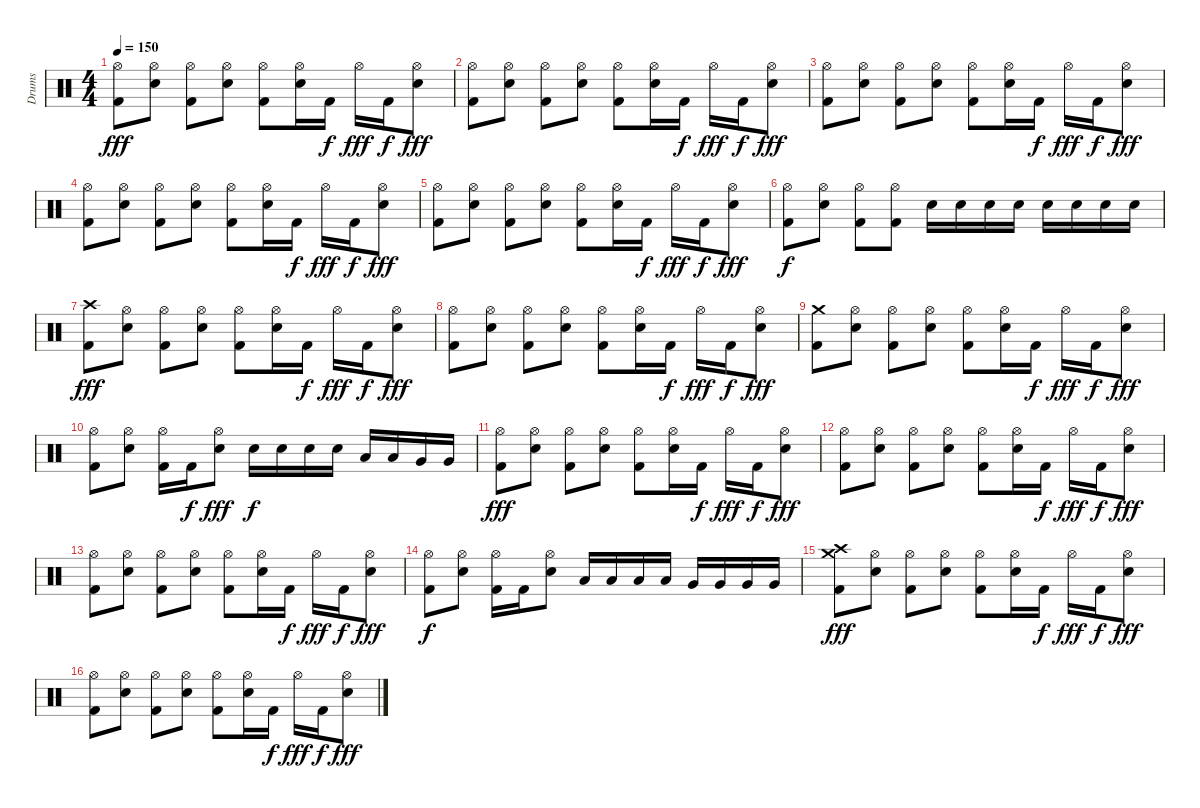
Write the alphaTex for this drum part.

\track ("Drums" "Drums") {instrument percussion}
\staff {score}
\articulation defaults
\ts (4 4)
\tempo 150
\clef neutral
\ks c
("Hi-Hat (open)" "Kick (hit) 2").8{dy fff} ("Hi-Hat (open)" "Electric Snare (hit)").8 ("Hi-Hat (open)" "Kick (hit) 2").8 ("Hi-Hat (open)" "Electric Snare (hit)").8 ("Hi-Hat (open)" "Kick (hit) 2").8 ("Hi-Hat (open)" "Electric Snare (hit)").16 "Kick (hit) 2".16{dy f} "Hi-Hat (open)".16{dy fff} "Kick (hit) 2".16{dy f} ("Hi-Hat (open)" "Electric Snare (hit)").8{dy fff} |
("Hi-Hat (open)" "Kick (hit) 2").8 ("Hi-Hat (open)" "Electric Snare (hit)").8 ("Hi-Hat (open)" "Kick (hit) 2").8 ("Hi-Hat (open)" "Electric Snare (hit)").8 ("Hi-Hat (open)" "Kick (hit) 2").8 ("Hi-Hat (open)" "Electric Snare (hit)").16 "Kick (hit) 2".16{dy f} "Hi-Hat (open)".16{dy fff} "Kick (hit) 2".16{dy f} ("Hi-Hat (open)" "Electric Snare (hit)").8{dy fff} |
("Hi-Hat (open)" "Kick (hit) 2").8 ("Hi-Hat (open)" "Electric Snare (hit)").8 ("Hi-Hat (open)" "Kick (hit) 2").8 ("Hi-Hat (open)" "Electric Snare (hit)").8 ("Hi-Hat (open)" "Kick (hit) 2").8 ("Hi-Hat (open)" "Electric Snare (hit)").16 "Kick (hit) 2".16{dy f} "Hi-Hat (open)".16{dy fff} "Kick (hit) 2".16{dy f} ("Hi-Hat (open)" "Electric Snare (hit)").8{dy fff} |
("Hi-Hat (open)" "Kick (hit) 2").8 ("Hi-Hat (open)" "Electric Snare (hit)").8 ("Hi-Hat (open)" "Kick (hit) 2").8 ("Hi-Hat (open)" "Electric Snare (hit)").8 ("Hi-Hat (open)" "Kick (hit) 2").8 ("Hi-Hat (open)" "Electric Snare (hit)").16 "Kick (hit) 2".16{dy f} "Hi-Hat (open)".16{dy fff} "Kick (hit) 2".16{dy f} ("Hi-Hat (open)" "Electric Snare (hit)").8{dy fff} |
("Hi-Hat (open)" "Kick (hit) 2").8 ("Hi-Hat (open)" "Electric Snare (hit)").8 ("Hi-Hat (open)" "Kick (hit) 2").8 ("Hi-Hat (open)" "Electric Snare (hit)").8 ("Hi-Hat (open)" "Kick (hit) 2").8 ("Hi-Hat (open)" "Electric Snare (hit)").16 "Kick (hit) 2".16{dy f} "Hi-Hat (open)".16{dy fff} "Kick (hit) 2".16{dy f} ("Hi-Hat (open)" "Electric Snare (hit)").8{dy fff} |
("Hi-Hat (open)" "Kick (hit) 2").8{dy f} ("Hi-Hat (open)" "Electric Snare (hit)").8 ("Hi-Hat (open)" "Kick (hit) 2").8 ("Hi-Hat (open)" "Kick (hit) 2").8 "Electric Snare (hit)".16 "Electric Snare (hit)".16 "Electric Snare (hit)".16 "Electric Snare (hit)".16 "Electric Snare (hit)".16 "Electric Snare (hit)".16 "Electric Snare (hit)".16 "Electric Snare (hit)".16 |
("Crash high (hit)" "Kick (hit) 2").8{dy fff} ("Hi-Hat (open)" "Electric Snare (hit)").8 ("Hi-Hat (open)" "Kick (hit) 2").8 ("Hi-Hat (open)" "Electric Snare (hit)").8 ("Hi-Hat (open)" "Kick (hit) 2").8 ("Hi-Hat (open)" "Electric Snare (hit)").16 "Kick (hit) 2".16{dy f} "Hi-Hat (open)".16{dy fff} "Kick (hit) 2".16{dy f} ("Hi-Hat (open)" "Electric Snare (hit)").8{dy fff} |
("Hi-Hat (open)" "Kick (hit) 2").8 ("Hi-Hat (open)" "Electric Snare (hit)").8 ("Hi-Hat (open)" "Kick (hit) 2").8 ("Hi-Hat (open)" "Electric Snare (hit)").8 ("Hi-Hat (open)" "Kick (hit) 2").8 ("Hi-Hat (open)" "Electric Snare (hit)").16 "Kick (hit) 2".16{dy f} "Hi-Hat (open)".16{dy fff} "Kick (hit) 2".16{dy f} ("Hi-Hat (open)" "Electric Snare (hit)").8{dy fff} |
("Crash medium (hit)" "Kick (hit) 2").8 ("Hi-Hat (open)" "Electric Snare (hit)").8 ("Hi-Hat (open)" "Kick (hit) 2").8 ("Hi-Hat (open)" "Electric Snare (hit)").8 ("Hi-Hat (open)" "Kick (hit) 2").8 ("Hi-Hat (open)" "Electric Snare (hit)").16 "Kick (hit) 2".16{dy f} "Hi-Hat (open)".16{dy fff} "Kick (hit) 2".16{dy f} ("Hi-Hat (open)" "Electric Snare (hit)").8{dy fff} |
("Hi-Hat (open)" "Kick (hit) 2").8 ("Hi-Hat (open)" "Electric Snare (hit)").8 ("Hi-Hat (open)" "Kick (hit) 2").16 "Kick (hit) 2".16{dy f} ("Hi-Hat (open)" "Electric Snare (hit)").8{dy fff} "Electric Snare (hit)".16{dy f} "Electric Snare (hit)".16 "Electric Snare (hit)".16 "Electric Snare (hit)".16 "Low Tom (hit)".16 "Low Tom (hit)".16 "Very Low Tom (hit)".16 "Very Low Tom (hit)".16 |
("Hi-Hat (open)" "Kick (hit) 2").8{dy fff} ("Hi-Hat (open)" "Electric Snare (hit)").8 ("Hi-Hat (open)" "Kick (hit) 2").8 ("Hi-Hat (open)" "Electric Snare (hit)").8 ("Hi-Hat (open)" "Kick (hit) 2").8 ("Hi-Hat (open)" "Electric Snare (hit)").16 "Kick (hit) 2".16{dy f} "Hi-Hat (open)".16{dy fff} "Kick (hit) 2".16{dy f} ("Hi-Hat (open)" "Electric Snare (hit)").8{dy fff} |
("Hi-Hat (open)" "Kick (hit) 2").8 ("Hi-Hat (open)" "Electric Snare (hit)").8 ("Hi-Hat (open)" "Kick (hit) 2").8 ("Hi-Hat (open)" "Electric Snare (hit)").8 ("Hi-Hat (open)" "Kick (hit) 2").8 ("Hi-Hat (open)" "Electric Snare (hit)").16 "Kick (hit) 2".16{dy f} "Hi-Hat (open)".16{dy fff} "Kick (hit) 2".16{dy f} ("Hi-Hat (open)" "Electric Snare (hit)").8{dy fff} |
("Hi-Hat (open)" "Kick (hit) 2").8 ("Hi-Hat (open)" "Electric Snare (hit)").8 ("Hi-Hat (open)" "Kick (hit) 2").8 ("Hi-Hat (open)" "Electric Snare (hit)").8 ("Hi-Hat (open)" "Kick (hit) 2").8 ("Hi-Hat (open)" "Electric Snare (hit)").16 "Kick (hit) 2".16{dy f} "Hi-Hat (open)".16{dy fff} "Kick (hit) 2".16{dy f} ("Hi-Hat (open)" "Electric Snare (hit)").8{dy fff} |
("Hi-Hat (open)" "Kick (hit) 2").8{dy f} ("Hi-Hat (open)" "Electric Snare (hit)").8 ("Hi-Hat (open)" "Kick (hit) 2").16 "Kick (hit) 2".16 ("Hi-Hat (open)" "Electric Snare (hit)").8 "Low Tom (hit)".16 "Low Tom (hit)".16 "Low Tom (hit)".16 "Low Tom (hit)".16 "Very Low Tom (hit)".16 "Very Low Tom (hit)".16 "Very Low Tom (hit)".16 "Very Low Tom (hit)".16 |
("Crash high (hit)" "Crash medium (hit)" "Kick (hit) 2").8{dy fff} ("Hi-Hat (open)" "Electric Snare (hit)").8 ("Hi-Hat (open)" "Kick (hit) 2").8 ("Hi-Hat (open)" "Electric Snare (hit)").8 ("Hi-Hat (open)" "Kick (hit) 2").8 ("Hi-Hat (open)" "Electric Snare (hit)").16 "Kick (hit) 2".16{dy f} "Hi-Hat (open)".16{dy fff} "Kick (hit) 2".16{dy f} ("Hi-Hat (open)" "Electric Snare (hit)").8{dy fff} |
("Hi-Hat (open)" "Kick (hit) 2").8 ("Hi-Hat (open)" "Electric Snare (hit)").8 ("Hi-Hat (open)" "Kick (hit) 2").8 ("Hi-Hat (open)" "Electric Snare (hit)").8 ("Hi-Hat (open)" "Kick (hit) 2").8 ("Hi-Hat (open)" "Electric Snare (hit)").16 "Kick (hit) 2".16{dy f} "Hi-Hat (open)".16{dy fff} "Kick (hit) 2".16{dy f} ("Hi-Hat (open)" "Electric Snare (hit)").8{dy fff}
